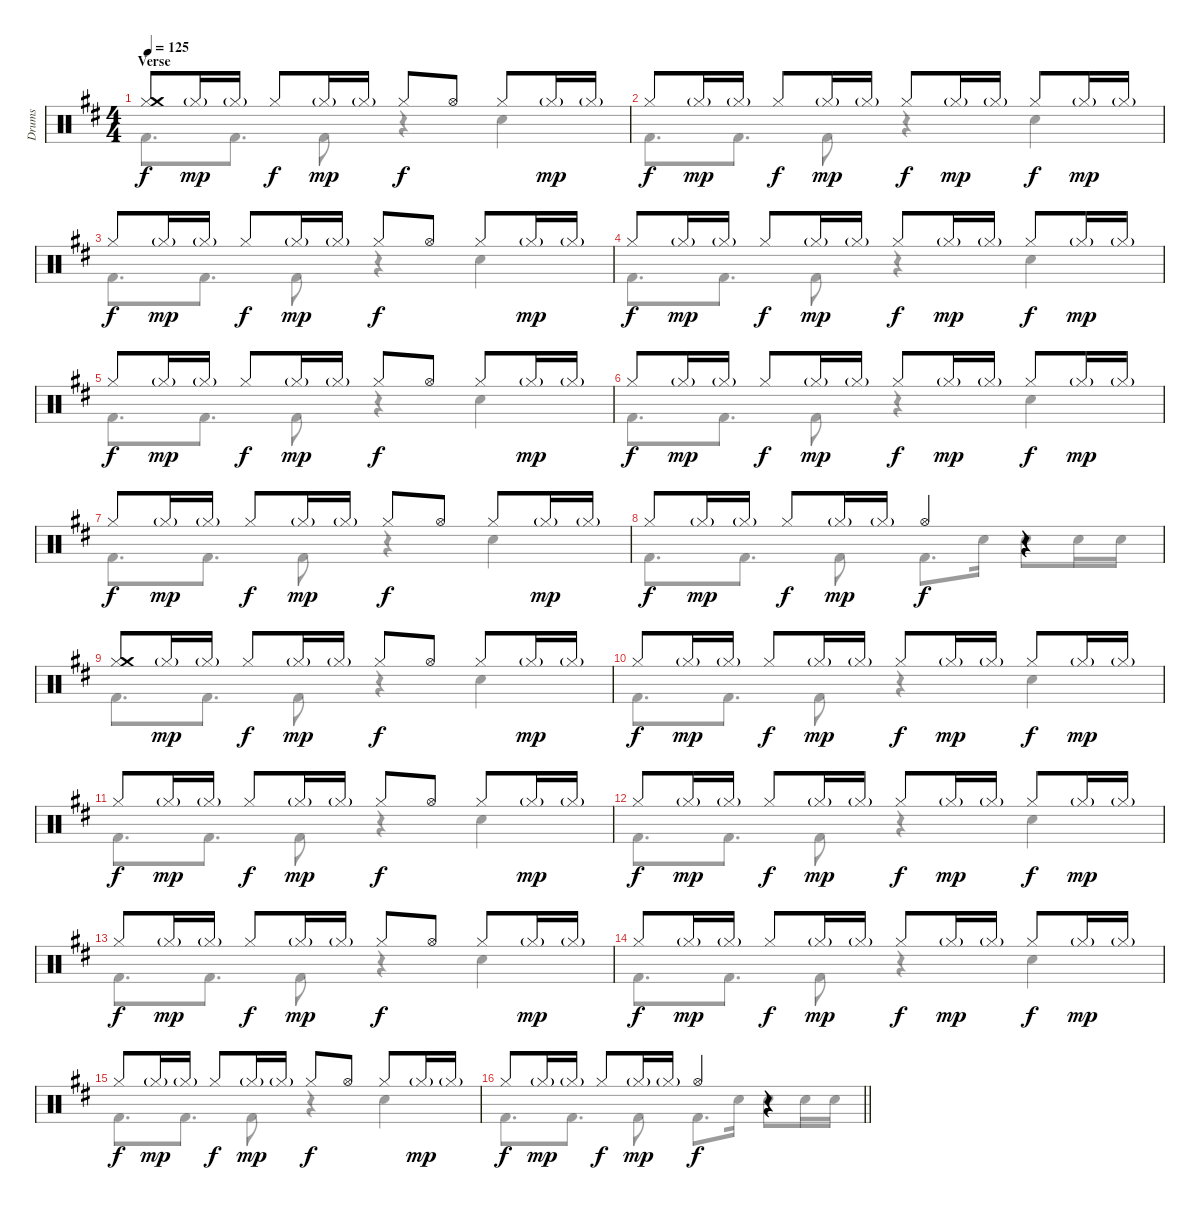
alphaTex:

\track ("Drums" "Drums") {instrument percussion}
\staff {score}
\articulation defaults
\voice
\ts (4 4)
\section ("" "Verse")
\tempo 125
\clef neutral
\ks bminor
("Hi-Hat (closed)" "Crash medium (hit)").8{dy f} "Hi-Hat (closed)"{g}.16{dy mp} "Hi-Hat (closed)"{g}.16 "Hi-Hat (closed)".8{dy f} "Hi-Hat (closed)"{g}.16{dy mp} "Hi-Hat (closed)"{g}.16 "Hi-Hat (closed)".8{dy f} "Hi-Hat (open)".8 "Hi-Hat (closed)".8 "Hi-Hat (closed)"{g}.16{dy mp} "Hi-Hat (closed)"{g}.16 |
"Hi-Hat (closed)".8{dy f} "Hi-Hat (closed)"{g}.16{dy mp} "Hi-Hat (closed)"{g}.16 "Hi-Hat (closed)".8{dy f} "Hi-Hat (closed)"{g}.16{dy mp} "Hi-Hat (closed)"{g}.16 "Hi-Hat (closed)".8{dy f} "Hi-Hat (closed)"{g}.16{dy mp} "Hi-Hat (closed)"{g}.16 "Hi-Hat (closed)".8{dy f} "Hi-Hat (closed)"{g}.16{dy mp} "Hi-Hat (closed)"{g}.16 |
"Hi-Hat (closed)".8{dy f} "Hi-Hat (closed)"{g}.16{dy mp} "Hi-Hat (closed)"{g}.16 "Hi-Hat (closed)".8{dy f} "Hi-Hat (closed)"{g}.16{dy mp} "Hi-Hat (closed)"{g}.16 "Hi-Hat (closed)".8{dy f} "Hi-Hat (open)".8 "Hi-Hat (closed)".8 "Hi-Hat (closed)"{g}.16{dy mp} "Hi-Hat (closed)"{g}.16 |
"Hi-Hat (closed)".8{dy f} "Hi-Hat (closed)"{g}.16{dy mp} "Hi-Hat (closed)"{g}.16 "Hi-Hat (closed)".8{dy f} "Hi-Hat (closed)"{g}.16{dy mp} "Hi-Hat (closed)"{g}.16 "Hi-Hat (closed)".8{dy f} "Hi-Hat (closed)"{g}.16{dy mp} "Hi-Hat (closed)"{g}.16 "Hi-Hat (closed)".8{dy f} "Hi-Hat (closed)"{g}.16{dy mp} "Hi-Hat (closed)"{g}.16 |
"Hi-Hat (closed)".8{dy f} "Hi-Hat (closed)"{g}.16{dy mp} "Hi-Hat (closed)"{g}.16 "Hi-Hat (closed)".8{dy f} "Hi-Hat (closed)"{g}.16{dy mp} "Hi-Hat (closed)"{g}.16 "Hi-Hat (closed)".8{dy f} "Hi-Hat (open)".8 "Hi-Hat (closed)".8 "Hi-Hat (closed)"{g}.16{dy mp} "Hi-Hat (closed)"{g}.16 |
"Hi-Hat (closed)".8{dy f} "Hi-Hat (closed)"{g}.16{dy mp} "Hi-Hat (closed)"{g}.16 "Hi-Hat (closed)".8{dy f} "Hi-Hat (closed)"{g}.16{dy mp} "Hi-Hat (closed)"{g}.16 "Hi-Hat (closed)".8{dy f} "Hi-Hat (closed)"{g}.16{dy mp} "Hi-Hat (closed)"{g}.16 "Hi-Hat (closed)".8{dy f} "Hi-Hat (closed)"{g}.16{dy mp} "Hi-Hat (closed)"{g}.16 |
"Hi-Hat (closed)".8{dy f} "Hi-Hat (closed)"{g}.16{dy mp} "Hi-Hat (closed)"{g}.16 "Hi-Hat (closed)".8{dy f} "Hi-Hat (closed)"{g}.16{dy mp} "Hi-Hat (closed)"{g}.16 "Hi-Hat (closed)".8{dy f} "Hi-Hat (open)".8 "Hi-Hat (closed)".8 "Hi-Hat (closed)"{g}.16{dy mp} "Hi-Hat (closed)"{g}.16 |
"Hi-Hat (closed)".8{dy f} "Hi-Hat (closed)"{g}.16{dy mp} "Hi-Hat (closed)"{g}.16 "Hi-Hat (closed)".8{dy f} "Hi-Hat (closed)"{g}.16{dy mp} "Hi-Hat (closed)"{g}.16 "Hi-Hat (open)".4{dy f} r.4 |
("Hi-Hat (closed)" "Crash medium (hit)").8 "Hi-Hat (closed)"{g}.16{dy mp} "Hi-Hat (closed)"{g}.16 "Hi-Hat (closed)".8{dy f} "Hi-Hat (closed)"{g}.16{dy mp} "Hi-Hat (closed)"{g}.16 "Hi-Hat (closed)".8{dy f} "Hi-Hat (open)".8 "Hi-Hat (closed)".8 "Hi-Hat (closed)"{g}.16{dy mp} "Hi-Hat (closed)"{g}.16 |
"Hi-Hat (closed)".8{dy f} "Hi-Hat (closed)"{g}.16{dy mp} "Hi-Hat (closed)"{g}.16 "Hi-Hat (closed)".8{dy f} "Hi-Hat (closed)"{g}.16{dy mp} "Hi-Hat (closed)"{g}.16 "Hi-Hat (closed)".8{dy f} "Hi-Hat (closed)"{g}.16{dy mp} "Hi-Hat (closed)"{g}.16 "Hi-Hat (closed)".8{dy f} "Hi-Hat (closed)"{g}.16{dy mp} "Hi-Hat (closed)"{g}.16 |
"Hi-Hat (closed)".8{dy f} "Hi-Hat (closed)"{g}.16{dy mp} "Hi-Hat (closed)"{g}.16 "Hi-Hat (closed)".8{dy f} "Hi-Hat (closed)"{g}.16{dy mp} "Hi-Hat (closed)"{g}.16 "Hi-Hat (closed)".8{dy f} "Hi-Hat (open)".8 "Hi-Hat (closed)".8 "Hi-Hat (closed)"{g}.16{dy mp} "Hi-Hat (closed)"{g}.16 |
"Hi-Hat (closed)".8{dy f} "Hi-Hat (closed)"{g}.16{dy mp} "Hi-Hat (closed)"{g}.16 "Hi-Hat (closed)".8{dy f} "Hi-Hat (closed)"{g}.16{dy mp} "Hi-Hat (closed)"{g}.16 "Hi-Hat (closed)".8{dy f} "Hi-Hat (closed)"{g}.16{dy mp} "Hi-Hat (closed)"{g}.16 "Hi-Hat (closed)".8{dy f} "Hi-Hat (closed)"{g}.16{dy mp} "Hi-Hat (closed)"{g}.16 |
"Hi-Hat (closed)".8{dy f} "Hi-Hat (closed)"{g}.16{dy mp} "Hi-Hat (closed)"{g}.16 "Hi-Hat (closed)".8{dy f} "Hi-Hat (closed)"{g}.16{dy mp} "Hi-Hat (closed)"{g}.16 "Hi-Hat (closed)".8{dy f} "Hi-Hat (open)".8 "Hi-Hat (closed)".8 "Hi-Hat (closed)"{g}.16{dy mp} "Hi-Hat (closed)"{g}.16 |
"Hi-Hat (closed)".8{dy f} "Hi-Hat (closed)"{g}.16{dy mp} "Hi-Hat (closed)"{g}.16 "Hi-Hat (closed)".8{dy f} "Hi-Hat (closed)"{g}.16{dy mp} "Hi-Hat (closed)"{g}.16 "Hi-Hat (closed)".8{dy f} "Hi-Hat (closed)"{g}.16{dy mp} "Hi-Hat (closed)"{g}.16 "Hi-Hat (closed)".8{dy f} "Hi-Hat (closed)"{g}.16{dy mp} "Hi-Hat (closed)"{g}.16 |
"Hi-Hat (closed)".8{dy f} "Hi-Hat (closed)"{g}.16{dy mp} "Hi-Hat (closed)"{g}.16 "Hi-Hat (closed)".8{dy f} "Hi-Hat (closed)"{g}.16{dy mp} "Hi-Hat (closed)"{g}.16 "Hi-Hat (closed)".8{dy f} "Hi-Hat (open)".8 "Hi-Hat (closed)".8 "Hi-Hat (closed)"{g}.16{dy mp} "Hi-Hat (closed)"{g}.16 |
\barLineRight lightlight "Hi-Hat (closed)".8{dy f} "Hi-Hat (closed)"{g}.16{dy mp} "Hi-Hat (closed)"{g}.16 "Hi-Hat (closed)".8{dy f} "Hi-Hat (closed)"{g}.16{dy mp} "Hi-Hat (closed)"{g}.16 "Hi-Hat (open)".4{dy f}
r.4
\voice
\clef neutral
\ottava regular
\simile none
\ks bminor "Kick (hit) 2".8{d dy f} "Kick (hit) 2".8{d} "Kick (hit) 2".8
r.4 "Electric Snare (hit)".4 |
"Kick (hit) 2".8{d} "Kick (hit) 2".8{d} "Kick (hit) 2".8 r.4 "Electric Snare (hit)".4 |
"Kick (hit) 2".8{d} "Kick (hit) 2".8{d} "Kick (hit) 2".8 r.4 "Electric Snare (hit)".4 |
"Kick (hit) 2".8{d} "Kick (hit) 2".8{d} "Kick (hit) 2".8 r.4 "Electric Snare (hit)".4 |
"Kick (hit) 2".8{d} "Kick (hit) 2".8{d} "Kick (hit) 2".8 r.4 "Electric Snare (hit)".4 |
"Kick (hit) 2".8{d} "Kick (hit) 2".8{d} "Kick (hit) 2".8 r.4 "Electric Snare (hit)".4 |
"Kick (hit) 2".8{d} "Kick (hit) 2".8{d} "Kick (hit) 2".8 r.4 "Electric Snare (hit)".4 |
"Kick (hit) 2".8{d} "Kick (hit) 2".8{d} "Kick (hit) 2".8 "Kick (hit) 2".8{d} "Electric Snare (hit)".16 "Electric Snare (hit)".8 "Electric Snare (hit)".16 "Electric Snare (hit)".16 |
"Kick (hit) 2".8{d} "Kick (hit) 2".8{d} "Kick (hit) 2".8 r.4 "Electric Snare (hit)".4 |
"Kick (hit) 2".8{d} "Kick (hit) 2".8{d} "Kick (hit) 2".8 r.4 "Electric Snare (hit)".4 |
"Kick (hit) 2".8{d} "Kick (hit) 2".8{d} "Kick (hit) 2".8 r.4 "Electric Snare (hit)".4 |
"Kick (hit) 2".8{d} "Kick (hit) 2".8{d} "Kick (hit) 2".8 r.4 "Electric Snare (hit)".4 |
"Kick (hit) 2".8{d} "Kick (hit) 2".8{d} "Kick (hit) 2".8 r.4 "Electric Snare (hit)".4 |
"Kick (hit) 2".8{d} "Kick (hit) 2".8{d} "Kick (hit) 2".8 r.4 "Electric Snare (hit)".4 |
"Kick (hit) 2".8{d} "Kick (hit) 2".8{d} "Kick (hit) 2".8 r.4 "Electric Snare (hit)".4 |
\barLineRight lightlight "Kick (hit) 2".8{d} "Kick (hit) 2".8{d} "Kick (hit) 2".8 "Kick (hit) 2".8{d} "Electric Snare (hit)".16 "Electric Snare (hit)".8 "Electric Snare (hit)".16 "Electric Snare (hit)".16
